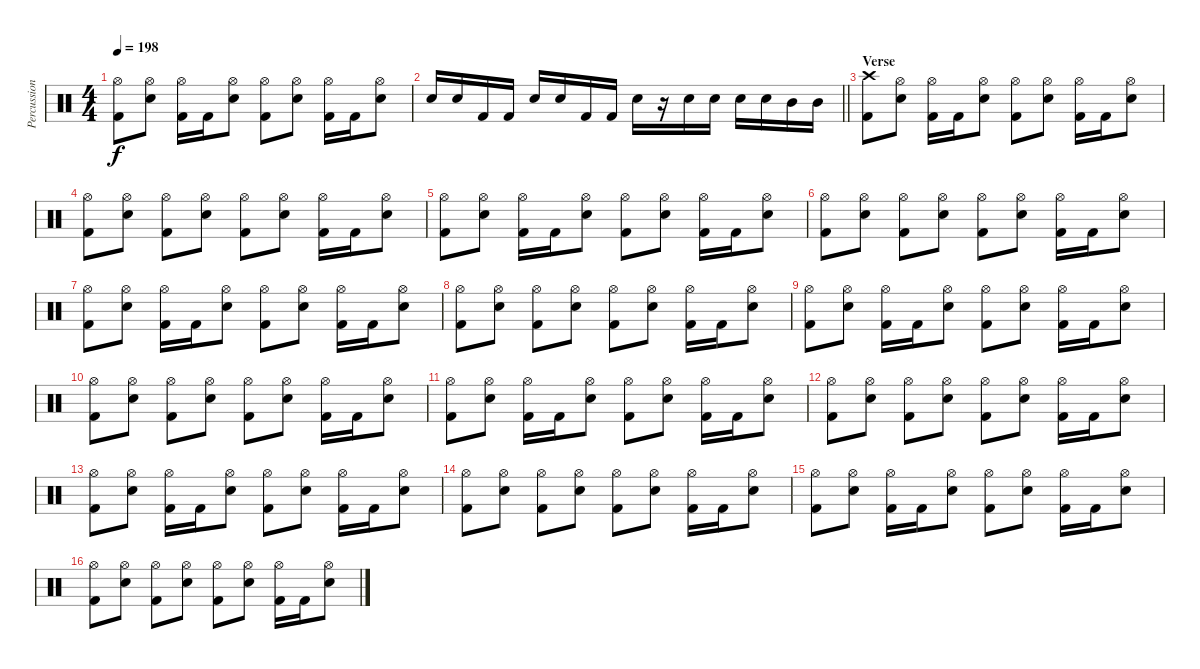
\track ("Percussion" "Percussion") {instrument percussion}
\staff {score}
\articulation defaults
\ts (4 4)
\tempo 198
\clef neutral
\ks c
("Hi-Hat (open)" "Kick (hit) 2").8{dy f} ("Hi-Hat (open)" "Electric Snare (hit)").8 ("Hi-Hat (open)" "Kick (hit) 2").16 "Kick (hit) 2".16 ("Hi-Hat (open)" "Electric Snare (hit)").8 ("Hi-Hat (open)" "Kick (hit) 2").8 ("Hi-Hat (open)" "Electric Snare (hit)").8 ("Hi-Hat (open)" "Kick (hit) 2").16 "Kick (hit) 2".16 ("Hi-Hat (open)" "Electric Snare (hit)").8 |
\barLineRight lightlight "Electric Snare (hit)".16 "Electric Snare (hit)".16 "Kick (hit) 2".16 "Kick (hit) 2".16 "Electric Snare (hit)".16 "Electric Snare (hit)".16 "Kick (hit) 2".16 "Kick (hit) 2".16 "Electric Snare (hit)".16
r.16 "Electric Snare (hit)".16 "Electric Snare (hit)".16 "Electric Snare (hit)".16 "Electric Snare (hit)".16 "Mid Tom (hit)".16 "Mid Tom (hit)".16 |
\section ("" "Verse")
("Crash high (hit)" "Kick (hit) 2").8 ("Hi-Hat (open)" "Electric Snare (hit)").8 ("Hi-Hat (open)" "Kick (hit) 2").16 "Kick (hit) 2".16 ("Hi-Hat (open)" "Electric Snare (hit)").8 ("Hi-Hat (open)" "Kick (hit) 2").8 ("Hi-Hat (open)" "Electric Snare (hit)").8 ("Hi-Hat (open)" "Kick (hit) 2").16 "Kick (hit) 2".16 ("Hi-Hat (open)" "Electric Snare (hit)").8 |
("Hi-Hat (open)" "Kick (hit) 2").8 ("Hi-Hat (open)" "Electric Snare (hit)").8 ("Hi-Hat (open)" "Kick (hit) 2").8 ("Hi-Hat (open)" "Electric Snare (hit)").8 ("Hi-Hat (open)" "Kick (hit) 2").8 ("Hi-Hat (open)" "Electric Snare (hit)").8 ("Hi-Hat (open)" "Kick (hit) 2").16 "Kick (hit) 2".16 ("Hi-Hat (open)" "Electric Snare (hit)").8 |
("Hi-Hat (open)" "Kick (hit) 2").8 ("Hi-Hat (open)" "Electric Snare (hit)").8 ("Hi-Hat (open)" "Kick (hit) 2").16 "Kick (hit) 2".16 ("Hi-Hat (open)" "Electric Snare (hit)").8 ("Hi-Hat (open)" "Kick (hit) 2").8 ("Hi-Hat (open)" "Electric Snare (hit)").8 ("Hi-Hat (open)" "Kick (hit) 2").16 "Kick (hit) 2".16 ("Hi-Hat (open)" "Electric Snare (hit)").8 |
("Hi-Hat (open)" "Kick (hit) 2").8 ("Hi-Hat (open)" "Electric Snare (hit)").8 ("Hi-Hat (open)" "Kick (hit) 2").8 ("Hi-Hat (open)" "Electric Snare (hit)").8 ("Hi-Hat (open)" "Kick (hit) 2").8 ("Hi-Hat (open)" "Electric Snare (hit)").8 ("Hi-Hat (open)" "Kick (hit) 2").16 "Kick (hit) 2".16 ("Hi-Hat (open)" "Electric Snare (hit)").8 |
("Hi-Hat (open)" "Kick (hit) 2").8 ("Hi-Hat (open)" "Electric Snare (hit)").8 ("Hi-Hat (open)" "Kick (hit) 2").16 "Kick (hit) 2".16 ("Hi-Hat (open)" "Electric Snare (hit)").8 ("Hi-Hat (open)" "Kick (hit) 2").8 ("Hi-Hat (open)" "Electric Snare (hit)").8 ("Hi-Hat (open)" "Kick (hit) 2").16 "Kick (hit) 2".16 ("Hi-Hat (open)" "Electric Snare (hit)").8 |
("Hi-Hat (open)" "Kick (hit) 2").8 ("Hi-Hat (open)" "Electric Snare (hit)").8 ("Hi-Hat (open)" "Kick (hit) 2").8 ("Hi-Hat (open)" "Electric Snare (hit)").8 ("Hi-Hat (open)" "Kick (hit) 2").8 ("Hi-Hat (open)" "Electric Snare (hit)").8 ("Hi-Hat (open)" "Kick (hit) 2").16 "Kick (hit) 2".16 ("Hi-Hat (open)" "Electric Snare (hit)").8 |
("Hi-Hat (open)" "Kick (hit) 2").8 ("Hi-Hat (open)" "Electric Snare (hit)").8 ("Hi-Hat (open)" "Kick (hit) 2").16 "Kick (hit) 2".16 ("Hi-Hat (open)" "Electric Snare (hit)").8 ("Hi-Hat (open)" "Kick (hit) 2").8 ("Hi-Hat (open)" "Electric Snare (hit)").8 ("Hi-Hat (open)" "Kick (hit) 2").16 "Kick (hit) 2".16 ("Hi-Hat (open)" "Electric Snare (hit)").8 |
("Hi-Hat (open)" "Kick (hit) 2").8 ("Hi-Hat (open)" "Electric Snare (hit)").8 ("Hi-Hat (open)" "Kick (hit) 2").8 ("Hi-Hat (open)" "Electric Snare (hit)").8 ("Hi-Hat (open)" "Kick (hit) 2").8 ("Hi-Hat (open)" "Electric Snare (hit)").8 ("Hi-Hat (open)" "Kick (hit) 2").16 "Kick (hit) 2".16 ("Hi-Hat (open)" "Electric Snare (hit)").8 |
("Hi-Hat (open)" "Kick (hit) 2").8 ("Hi-Hat (open)" "Electric Snare (hit)").8 ("Hi-Hat (open)" "Kick (hit) 2").16 "Kick (hit) 2".16 ("Hi-Hat (open)" "Electric Snare (hit)").8 ("Hi-Hat (open)" "Kick (hit) 2").8 ("Hi-Hat (open)" "Electric Snare (hit)").8 ("Hi-Hat (open)" "Kick (hit) 2").16 "Kick (hit) 2".16 ("Hi-Hat (open)" "Electric Snare (hit)").8 |
("Hi-Hat (open)" "Kick (hit) 2").8 ("Hi-Hat (open)" "Electric Snare (hit)").8 ("Hi-Hat (open)" "Kick (hit) 2").8 ("Hi-Hat (open)" "Electric Snare (hit)").8 ("Hi-Hat (open)" "Kick (hit) 2").8 ("Hi-Hat (open)" "Electric Snare (hit)").8 ("Hi-Hat (open)" "Kick (hit) 2").16 "Kick (hit) 2".16 ("Hi-Hat (open)" "Electric Snare (hit)").8 |
("Hi-Hat (open)" "Kick (hit) 2").8 ("Hi-Hat (open)" "Electric Snare (hit)").8 ("Hi-Hat (open)" "Kick (hit) 2").16 "Kick (hit) 2".16 ("Hi-Hat (open)" "Electric Snare (hit)").8 ("Hi-Hat (open)" "Kick (hit) 2").8 ("Hi-Hat (open)" "Electric Snare (hit)").8 ("Hi-Hat (open)" "Kick (hit) 2").16 "Kick (hit) 2".16 ("Hi-Hat (open)" "Electric Snare (hit)").8 |
("Hi-Hat (open)" "Kick (hit) 2").8 ("Hi-Hat (open)" "Electric Snare (hit)").8 ("Hi-Hat (open)" "Kick (hit) 2").8 ("Hi-Hat (open)" "Electric Snare (hit)").8 ("Hi-Hat (open)" "Kick (hit) 2").8 ("Hi-Hat (open)" "Electric Snare (hit)").8 ("Hi-Hat (open)" "Kick (hit) 2").16 "Kick (hit) 2".16 ("Hi-Hat (open)" "Electric Snare (hit)").8 |
("Hi-Hat (open)" "Kick (hit) 2").8 ("Hi-Hat (open)" "Electric Snare (hit)").8 ("Hi-Hat (open)" "Kick (hit) 2").16 "Kick (hit) 2".16 ("Hi-Hat (open)" "Electric Snare (hit)").8 ("Hi-Hat (open)" "Kick (hit) 2").8 ("Hi-Hat (open)" "Electric Snare (hit)").8 ("Hi-Hat (open)" "Kick (hit) 2").16 "Kick (hit) 2".16 ("Hi-Hat (open)" "Electric Snare (hit)").8 |
("Hi-Hat (open)" "Kick (hit) 2").8 ("Hi-Hat (open)" "Electric Snare (hit)").8 ("Hi-Hat (open)" "Kick (hit) 2").8 ("Hi-Hat (open)" "Electric Snare (hit)").8 ("Hi-Hat (open)" "Kick (hit) 2").8 ("Hi-Hat (open)" "Electric Snare (hit)").8 ("Hi-Hat (open)" "Kick (hit) 2").16 "Kick (hit) 2".16 ("Hi-Hat (open)" "Electric Snare (hit)").8
